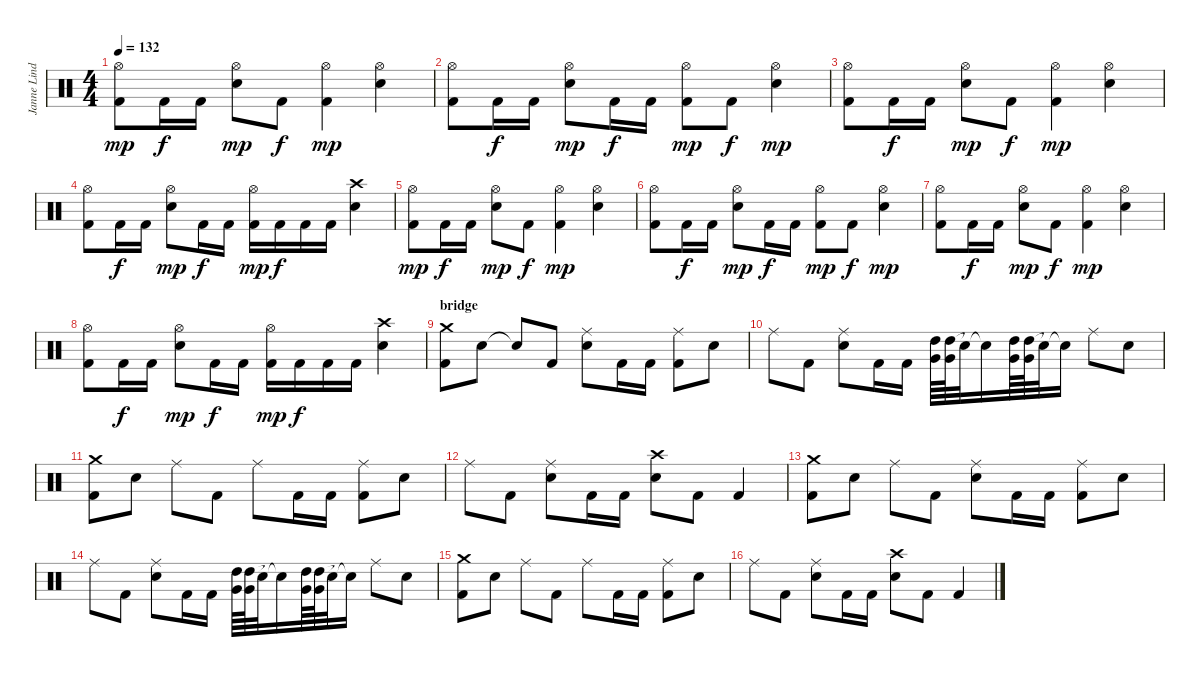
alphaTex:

\track ("Janne Lindh" "Janne Lind") {instrument percussion}
\staff {score}
\articulation defaults
\ts (4 4)
\tempo 132
\clef neutral
\ks c
("Kick (hit) 2" "Hi-Hat (open)").8{dy mp} "Kick (hit) 2".16{dy f} "Kick (hit) 2".16 ("Hi-Hat (open)" "Snare (hit) 2").8{dy mp} "Kick (hit) 2".8{dy f} ("Kick (hit) 2" "Hi-Hat (open)").4{dy mp} ("Hi-Hat (open)" "Snare (hit) 2").4 |
("Kick (hit) 2" "Hi-Hat (open)").8 "Kick (hit) 2".16{dy f} "Kick (hit) 2".16 ("Hi-Hat (open)" "Snare (hit) 2").8{dy mp} "Kick (hit) 2".16{dy f} "Kick (hit) 2".16 ("Kick (hit) 2" "Hi-Hat (open)").8{dy mp} "Kick (hit) 2".8{dy f} ("Hi-Hat (open)" "Snare (hit) 2").4{dy mp} |
("Kick (hit) 2" "Hi-Hat (open)").8 "Kick (hit) 2".16{dy f} "Kick (hit) 2".16 ("Hi-Hat (open)" "Snare (hit) 2").8{dy mp} "Kick (hit) 2".8{dy f} ("Kick (hit) 2" "Hi-Hat (open)").4{dy mp} ("Hi-Hat (open)" "Snare (hit) 2").4 |
("Kick (hit) 2" "Hi-Hat (open)").8 "Kick (hit) 2".16{dy f} "Kick (hit) 2".16 ("Hi-Hat (open)" "Snare (hit) 2").8{dy mp} "Kick (hit) 2".16{dy f} "Kick (hit) 2".16 ("Kick (hit) 2" "Hi-Hat (open)").16{dy mp} "Kick (hit) 2".16{dy f} "Kick (hit) 2".16 "Kick (hit) 2".16 ("Crash high (hit)" "Snare (hit) 2").4 |
("Kick (hit) 2" "Hi-Hat (open)").8{dy mp} "Kick (hit) 2".16{dy f} "Kick (hit) 2".16 ("Hi-Hat (open)" "Snare (hit) 2").8{dy mp} "Kick (hit) 2".8{dy f} ("Kick (hit) 2" "Hi-Hat (open)").4{dy mp} ("Hi-Hat (open)" "Snare (hit) 2").4 |
("Kick (hit) 2" "Hi-Hat (open)").8 "Kick (hit) 2".16{dy f} "Kick (hit) 2".16 ("Hi-Hat (open)" "Snare (hit) 2").8{dy mp} "Kick (hit) 2".16{dy f} "Kick (hit) 2".16 ("Kick (hit) 2" "Hi-Hat (open)").8{dy mp} "Kick (hit) 2".8{dy f} ("Hi-Hat (open)" "Snare (hit) 2").4{dy mp} |
("Kick (hit) 2" "Hi-Hat (open)").8 "Kick (hit) 2".16{dy f} "Kick (hit) 2".16 ("Hi-Hat (open)" "Snare (hit) 2").8{dy mp} "Kick (hit) 2".8{dy f} ("Kick (hit) 2" "Hi-Hat (open)").4{dy mp} ("Hi-Hat (open)" "Snare (hit) 2").4 |
("Kick (hit) 2" "Hi-Hat (open)").8 "Kick (hit) 2".16{dy f} "Kick (hit) 2".16 ("Hi-Hat (open)" "Snare (hit) 2").8{dy mp} "Kick (hit) 2".16{dy f} "Kick (hit) 2".16 ("Kick (hit) 2" "Hi-Hat (open)").16{dy mp} "Kick (hit) 2".16{dy f} "Kick (hit) 2".16 "Kick (hit) 2".16 ("Crash high (hit)" "Snare (hit) 2").4 |
\section ("" "bridge")
("Kick (hit) 2" "Crash medium (hit)").8 "Snare (hit) 2".8 "Snare (hit)"{t}.8 "Kick (hit) 2".8 ("Ride (middle)" "Snare (hit) 2").8 "Kick (hit) 2".16 "Kick (hit) 2".16 ("Kick (hit) 2" "Ride (middle)").8 "Snare (hit) 2".8 |
"Ride (middle)".8 "Kick (hit) 2".8 ("Ride (middle)" "Snare (hit) 2").8 "Kick (hit) 2".16 "Kick (hit) 2".16 ("High Tom (hit)" "Very Low Tom (hit)").64 ("High Tom (hit)" "Very Low Tom (hit)").64 "Snare (hit)"{t}.32 "Snare (hit)"{t}.16 ("High Tom (hit)" "Very Low Tom (hit)").64 ("High Tom (hit)" "Very Low Tom (hit)").64 "Snare (hit)"{t}.32 "Snare (hit)"{t}.16 "Ride (middle)".8 "Snare (hit) 2".8 |
("Kick (hit) 2" "Crash medium (hit)").8 "Snare (hit) 2".8 "Ride (middle)".8 "Kick (hit) 2".8 "Ride (middle)".8 "Kick (hit) 2".16 "Kick (hit) 2".16 ("Kick (hit) 2" "Ride (middle)").8 "Snare (hit) 2".8 |
"Ride (middle)".8 "Kick (hit) 2".8 ("Ride (middle)" "Snare (hit) 2").8 "Kick (hit) 2".16 "Kick (hit) 2".16 ("Crash high (hit)" "Snare (hit) 2").8 "Kick (hit) 2".8 "Kick (hit) 2".4 |
("Kick (hit) 2" "Crash medium (hit)").8 "Snare (hit) 2".8 "Ride (middle)".8 "Kick (hit) 2".8 ("Ride (middle)" "Snare (hit) 2").8 "Kick (hit) 2".16 "Kick (hit) 2".16 ("Kick (hit) 2" "Ride (middle)").8 "Snare (hit) 2".8 |
"Ride (middle)".8 "Kick (hit) 2".8 ("Ride (middle)" "Snare (hit) 2").8 "Kick (hit) 2".16 "Kick (hit) 2".16 ("High Tom (hit)" "Very Low Tom (hit)").64 ("High Tom (hit)" "Very Low Tom (hit)").64 "Snare (hit)"{t}.32 "Snare (hit)"{t}.16 ("High Tom (hit)" "Very Low Tom (hit)").64 ("High Tom (hit)" "Very Low Tom (hit)").64 "Snare (hit)"{t}.32 "Snare (hit)"{t}.16 "Ride (middle)".8 "Snare (hit) 2".8 |
("Kick (hit) 2" "Crash medium (hit)").8 "Snare (hit) 2".8 "Ride (middle)".8 "Kick (hit) 2".8 "Ride (middle)".8 "Kick (hit) 2".16 "Kick (hit) 2".16 ("Kick (hit) 2" "Ride (middle)").8 "Snare (hit) 2".8 |
"Ride (middle)".8 "Kick (hit) 2".8 ("Ride (middle)" "Snare (hit) 2").8 "Kick (hit) 2".16 "Kick (hit) 2".16 ("Crash high (hit)" "Snare (hit) 2").8 "Kick (hit) 2".8 "Kick (hit) 2".4
